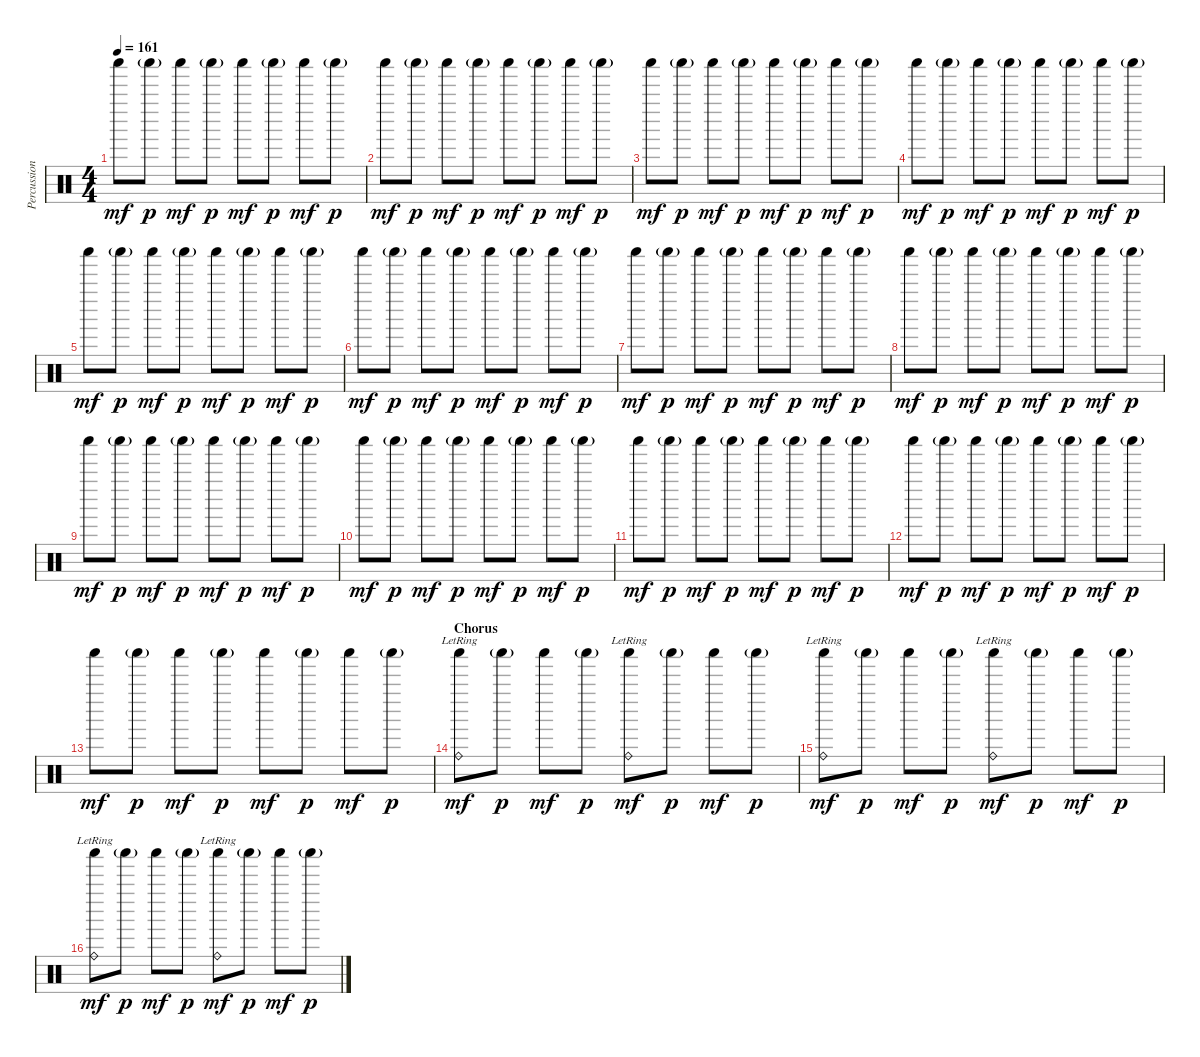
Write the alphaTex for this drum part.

\track ("Percussion" "Percussion") {instrument percussion}
\staff {score}
\articulation defaults
\ts (4 4)
\tempo 161
\clef neutral
\ks c "Shaker (hit)".8{dy mf} "Shaker (hit)"{g}.8{dy p} "Shaker (hit)".8{dy mf} "Shaker (hit)"{g}.8{dy p} "Shaker (hit)".8{dy mf} "Shaker (hit)"{g}.8{dy p} "Shaker (hit)".8{dy mf} "Shaker (hit)"{g}.8{dy p}
|
"Shaker (hit)".8{dy mf} "Shaker (hit)"{g}.8{dy p} "Shaker (hit)".8{dy mf} "Shaker (hit)"{g}.8{dy p} "Shaker (hit)".8{dy mf} "Shaker (hit)"{g}.8{dy p} "Shaker (hit)".8{dy mf} "Shaker (hit)"{g}.8{dy p} |
"Shaker (hit)".8{dy mf} "Shaker (hit)"{g}.8{dy p} "Shaker (hit)".8{dy mf} "Shaker (hit)"{g}.8{dy p} "Shaker (hit)".8{dy mf} "Shaker (hit)"{g}.8{dy p} "Shaker (hit)".8{dy mf} "Shaker (hit)"{g}.8{dy p} |
"Shaker (hit)".8{dy mf} "Shaker (hit)"{g}.8{dy p} "Shaker (hit)".8{dy mf} "Shaker (hit)"{g}.8{dy p} "Shaker (hit)".8{dy mf} "Shaker (hit)"{g}.8{dy p} "Shaker (hit)".8{dy mf} "Shaker (hit)"{g}.8{dy p} |
"Shaker (hit)".8{dy mf} "Shaker (hit)"{g}.8{dy p} "Shaker (hit)".8{dy mf} "Shaker (hit)"{g}.8{dy p} "Shaker (hit)".8{dy mf} "Shaker (hit)"{g}.8{dy p} "Shaker (hit)".8{dy mf} "Shaker (hit)"{g}.8{dy p} |
"Shaker (hit)".8{dy mf} "Shaker (hit)"{g}.8{dy p} "Shaker (hit)".8{dy mf} "Shaker (hit)"{g}.8{dy p} "Shaker (hit)".8{dy mf} "Shaker (hit)"{g}.8{dy p} "Shaker (hit)".8{dy mf} "Shaker (hit)"{g}.8{dy p} |
"Shaker (hit)".8{dy mf} "Shaker (hit)"{g}.8{dy p} "Shaker (hit)".8{dy mf} "Shaker (hit)"{g}.8{dy p} "Shaker (hit)".8{dy mf} "Shaker (hit)"{g}.8{dy p} "Shaker (hit)".8{dy mf} "Shaker (hit)"{g}.8{dy p} |
"Shaker (hit)".8{dy mf} "Shaker (hit)"{g}.8{dy p} "Shaker (hit)".8{dy mf} "Shaker (hit)"{g}.8{dy p} "Shaker (hit)".8{dy mf} "Shaker (hit)"{g}.8{dy p} "Shaker (hit)".8{dy mf} "Shaker (hit)"{g}.8{dy p} |
"Shaker (hit)".8{dy mf} "Shaker (hit)"{g}.8{dy p} "Shaker (hit)".8{dy mf} "Shaker (hit)"{g}.8{dy p} "Shaker (hit)".8{dy mf} "Shaker (hit)"{g}.8{dy p} "Shaker (hit)".8{dy mf} "Shaker (hit)"{g}.8{dy p} |
"Shaker (hit)".8{dy mf} "Shaker (hit)"{g}.8{dy p} "Shaker (hit)".8{dy mf} "Shaker (hit)"{g}.8{dy p} "Shaker (hit)".8{dy mf} "Shaker (hit)"{g}.8{dy p} "Shaker (hit)".8{dy mf} "Shaker (hit)"{g}.8{dy p} |
"Shaker (hit)".8{dy mf} "Shaker (hit)"{g}.8{dy p} "Shaker (hit)".8{dy mf} "Shaker (hit)"{g}.8{dy p} "Shaker (hit)".8{dy mf} "Shaker (hit)"{g}.8{dy p} "Shaker (hit)".8{dy mf} "Shaker (hit)"{g}.8{dy p} |
"Shaker (hit)".8{dy mf} "Shaker (hit)"{g}.8{dy p} "Shaker (hit)".8{dy mf} "Shaker (hit)"{g}.8{dy p} "Shaker (hit)".8{dy mf} "Shaker (hit)"{g}.8{dy p} "Shaker (hit)".8{dy mf} "Shaker (hit)"{g}.8{dy p} |
"Shaker (hit)".8{dy mf} "Shaker (hit)"{g}.8{dy p} "Shaker (hit)".8{dy mf} "Shaker (hit)"{g}.8{dy p} "Shaker (hit)".8{dy mf} "Shaker (hit)"{g}.8{dy p} "Shaker (hit)".8{dy mf} "Shaker (hit)"{g}.8{dy p} |
\section ("" "Chorus")
("Ride (bell)"{lr} "Shaker (hit)").8{dy mf} "Shaker (hit)"{g}.8{dy p} "Shaker (hit)".8{dy mf} "Shaker (hit)"{g}.8{dy p} ("Ride (bell)"{lr} "Shaker (hit)").8{dy mf} "Shaker (hit)"{g}.8{dy p} "Shaker (hit)".8{dy mf} "Shaker (hit)"{g}.8{dy p} |
("Ride (bell)"{lr} "Shaker (hit)").8{dy mf} "Shaker (hit)"{g}.8{dy p} "Shaker (hit)".8{dy mf} "Shaker (hit)"{g}.8{dy p} ("Ride (bell)"{lr} "Shaker (hit)").8{dy mf} "Shaker (hit)"{g}.8{dy p} "Shaker (hit)".8{dy mf} "Shaker (hit)"{g}.8{dy p} |
("Ride (bell)"{lr} "Shaker (hit)").8{dy mf} "Shaker (hit)"{g}.8{dy p} "Shaker (hit)".8{dy mf} "Shaker (hit)"{g}.8{dy p} ("Ride (bell)"{lr} "Shaker (hit)").8{dy mf} "Shaker (hit)"{g}.8{dy p} "Shaker (hit)".8{dy mf} "Shaker (hit)"{g}.8{dy p}
